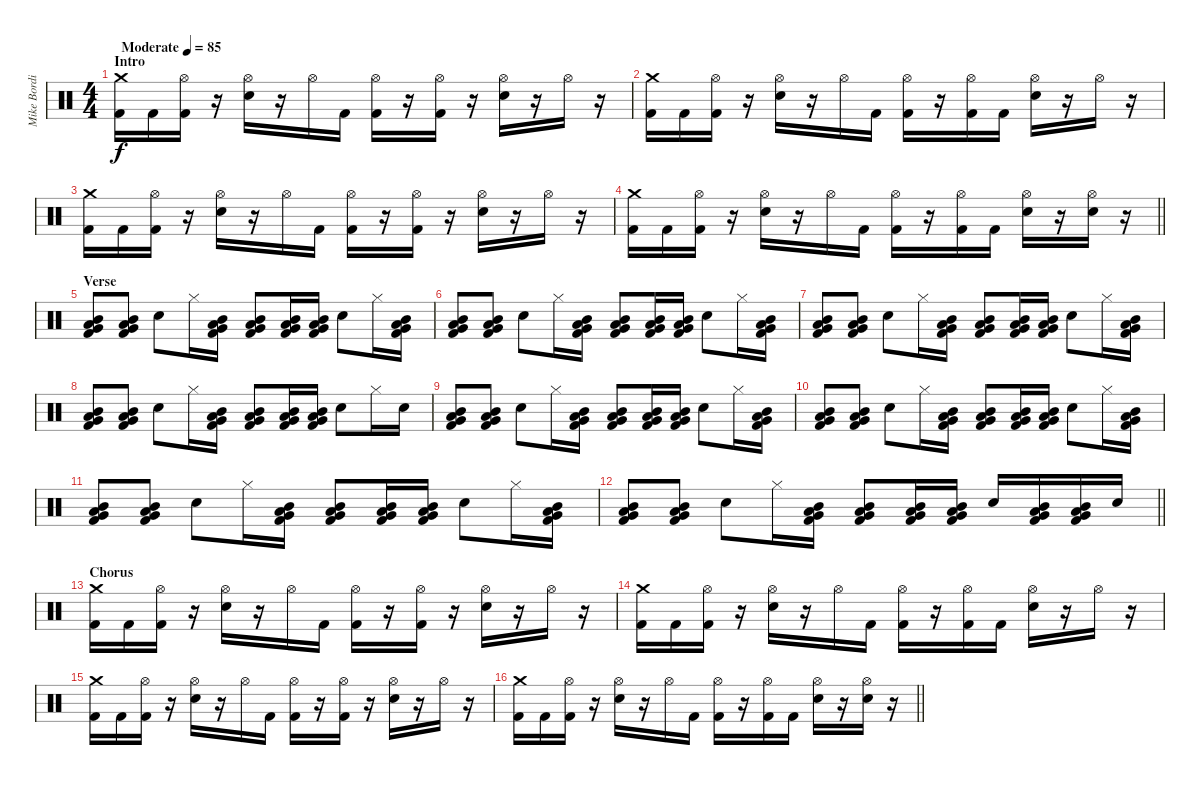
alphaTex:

\track ("Mike Bordin (Drums)" "Mike Bordi") {instrument percussion}
\staff {score}
\articulation defaults
\ts (4 4)
\section ("" "Intro")
\tempo (85 "Moderate")
\clef neutral
\ks c
("Crash medium (hit)" "Kick (hit) 2").16{dy f} "Kick (hit) 2".16 ("Hi-Hat (open)" "Kick (hit) 2").16 r.16 ("Hi-Hat (open)" "Snare (hit) 2").16 r.16 "Hi-Hat (open)".16 "Kick (hit) 2".16 ("Hi-Hat (open)" "Kick (hit) 2").16 r.16 ("Hi-Hat (open)" "Kick (hit) 2").16 r.16 ("Hi-Hat (open)" "Snare (hit) 2").16 r.16 "Hi-Hat (open)".16 r.16 |
("Crash medium (hit)" "Kick (hit) 2").16 "Kick (hit) 2".16 ("Hi-Hat (open)" "Kick (hit) 2").16 r.16 ("Hi-Hat (open)" "Snare (hit) 2").16 r.16 "Hi-Hat (open)".16 "Kick (hit) 2".16 ("Hi-Hat (open)" "Kick (hit) 2").16 r.16 ("Hi-Hat (open)" "Kick (hit) 2").16 "Kick (hit) 2".16 ("Hi-Hat (open)" "Snare (hit) 2").16 r.16 "Hi-Hat (open)".16 r.16 |
("Crash medium (hit)" "Kick (hit) 2").16 "Kick (hit) 2".16 ("Hi-Hat (open)" "Kick (hit) 2").16 r.16 ("Hi-Hat (open)" "Snare (hit) 2").16 r.16 "Hi-Hat (open)".16 "Kick (hit) 2".16 ("Hi-Hat (open)" "Kick (hit) 2").16 r.16 ("Hi-Hat (open)" "Kick (hit) 2").16 r.16 ("Hi-Hat (open)" "Snare (hit) 2").16 r.16 "Hi-Hat (open)".16 r.16 |
\barLineRight lightlight
("Crash medium (hit)" "Kick (hit) 2").16 "Kick (hit) 2".16 ("Hi-Hat (open)" "Kick (hit) 2").16 r.16 ("Hi-Hat (open)" "Snare (hit) 2").16 r.16 "Hi-Hat (open)".16 "Kick (hit) 2".16 ("Hi-Hat (open)" "Kick (hit) 2").16 r.16 ("Hi-Hat (open)" "Kick (hit) 2").16 "Kick (hit) 2".16 ("Hi-Hat (open)" "Snare (hit) 2").16 r.16 ("Hi-Hat (open)" "Snare (hit) 2").16 r.16 |
\section ("" "Verse")
("Mid Tom (hit)" "Low Tom (hit)" "Very Low Tom (hit)" "Kick (hit) 2").8 ("Mid Tom (hit)" "Low Tom (hit)" "Very Low Tom (hit)" "Kick (hit) 2").8 "Snare (hit) 2".8 "Hi-Hat (closed)".16 ("Mid Tom (hit)" "Low Tom (hit)" "Very Low Tom (hit)" "Kick (hit) 2").16 ("Mid Tom (hit)" "Low Tom (hit)" "Very Low Tom (hit)" "Kick (hit) 2").8 ("Mid Tom (hit)" "Low Tom (hit)" "Very Low Tom (hit)" "Kick (hit) 2").16 ("Mid Tom (hit)" "Low Tom (hit)" "Very Low Tom (hit)" "Kick (hit) 2").16 "Snare (hit) 2".8 "Hi-Hat (closed)".16 ("Mid Tom (hit)" "Low Tom (hit)" "Very Low Tom (hit)" "Kick (hit) 2").16 |
("Mid Tom (hit)" "Low Tom (hit)" "Very Low Tom (hit)" "Kick (hit) 2").8 ("Mid Tom (hit)" "Low Tom (hit)" "Very Low Tom (hit)" "Kick (hit) 2").8 "Snare (hit) 2".8 "Hi-Hat (closed)".16 ("Mid Tom (hit)" "Low Tom (hit)" "Very Low Tom (hit)" "Kick (hit) 2").16 ("Mid Tom (hit)" "Low Tom (hit)" "Very Low Tom (hit)" "Kick (hit) 2").8 ("Mid Tom (hit)" "Low Tom (hit)" "Very Low Tom (hit)" "Kick (hit) 2").16 ("Mid Tom (hit)" "Low Tom (hit)" "Very Low Tom (hit)" "Kick (hit) 2").16 "Snare (hit) 2".8 "Hi-Hat (closed)".16 ("Mid Tom (hit)" "Low Tom (hit)" "Very Low Tom (hit)" "Kick (hit) 2").16 |
("Mid Tom (hit)" "Low Tom (hit)" "Very Low Tom (hit)" "Kick (hit) 2").8 ("Mid Tom (hit)" "Low Tom (hit)" "Very Low Tom (hit)" "Kick (hit) 2").8 "Snare (hit) 2".8 "Hi-Hat (closed)".16 ("Mid Tom (hit)" "Low Tom (hit)" "Very Low Tom (hit)" "Kick (hit) 2").16 ("Mid Tom (hit)" "Low Tom (hit)" "Very Low Tom (hit)" "Kick (hit) 2").8 ("Mid Tom (hit)" "Low Tom (hit)" "Very Low Tom (hit)" "Kick (hit) 2").16 ("Mid Tom (hit)" "Low Tom (hit)" "Very Low Tom (hit)" "Kick (hit) 2").16 "Snare (hit) 2".8 "Hi-Hat (closed)".16 ("Mid Tom (hit)" "Low Tom (hit)" "Very Low Tom (hit)" "Kick (hit) 2").16 |
("Mid Tom (hit)" "Low Tom (hit)" "Very Low Tom (hit)" "Kick (hit) 2").8 ("Mid Tom (hit)" "Low Tom (hit)" "Very Low Tom (hit)" "Kick (hit) 2").8 "Snare (hit) 2".8 "Hi-Hat (closed)".16 ("Mid Tom (hit)" "Low Tom (hit)" "Very Low Tom (hit)" "Kick (hit) 2").16 ("Mid Tom (hit)" "Low Tom (hit)" "Very Low Tom (hit)" "Kick (hit) 2").8 ("Mid Tom (hit)" "Low Tom (hit)" "Very Low Tom (hit)" "Kick (hit) 2").16 ("Mid Tom (hit)" "Low Tom (hit)" "Very Low Tom (hit)" "Kick (hit) 2").16 "Snare (hit) 2".8 "Hi-Hat (closed)".16 "Snare (hit) 2".16 |
("Mid Tom (hit)" "Low Tom (hit)" "Very Low Tom (hit)" "Kick (hit) 2").8 ("Mid Tom (hit)" "Low Tom (hit)" "Very Low Tom (hit)" "Kick (hit) 2").8 "Snare (hit) 2".8 "Hi-Hat (closed)".16 ("Mid Tom (hit)" "Low Tom (hit)" "Very Low Tom (hit)" "Kick (hit) 2").16 ("Mid Tom (hit)" "Low Tom (hit)" "Very Low Tom (hit)" "Kick (hit) 2").8 ("Mid Tom (hit)" "Low Tom (hit)" "Very Low Tom (hit)" "Kick (hit) 2").16 ("Mid Tom (hit)" "Low Tom (hit)" "Very Low Tom (hit)" "Kick (hit) 2").16 "Snare (hit) 2".8 "Hi-Hat (closed)".16 ("Mid Tom (hit)" "Low Tom (hit)" "Very Low Tom (hit)" "Kick (hit) 2").16 |
("Mid Tom (hit)" "Low Tom (hit)" "Very Low Tom (hit)" "Kick (hit) 2").8 ("Mid Tom (hit)" "Low Tom (hit)" "Very Low Tom (hit)" "Kick (hit) 2").8 "Snare (hit) 2".8 "Hi-Hat (closed)".16 ("Mid Tom (hit)" "Low Tom (hit)" "Very Low Tom (hit)" "Kick (hit) 2").16 ("Mid Tom (hit)" "Low Tom (hit)" "Very Low Tom (hit)" "Kick (hit) 2").8 ("Mid Tom (hit)" "Low Tom (hit)" "Very Low Tom (hit)" "Kick (hit) 2").16 ("Mid Tom (hit)" "Low Tom (hit)" "Very Low Tom (hit)" "Kick (hit) 2").16 "Snare (hit) 2".8 "Hi-Hat (closed)".16 ("Mid Tom (hit)" "Low Tom (hit)" "Very Low Tom (hit)" "Kick (hit) 2").16 |
("Mid Tom (hit)" "Low Tom (hit)" "Very Low Tom (hit)" "Kick (hit) 2").8 ("Mid Tom (hit)" "Low Tom (hit)" "Very Low Tom (hit)" "Kick (hit) 2").8 "Snare (hit) 2".8 "Hi-Hat (closed)".16 ("Mid Tom (hit)" "Low Tom (hit)" "Very Low Tom (hit)" "Kick (hit) 2").16 ("Mid Tom (hit)" "Low Tom (hit)" "Very Low Tom (hit)" "Kick (hit) 2").8 ("Mid Tom (hit)" "Low Tom (hit)" "Very Low Tom (hit)" "Kick (hit) 2").16 ("Mid Tom (hit)" "Low Tom (hit)" "Very Low Tom (hit)" "Kick (hit) 2").16 "Snare (hit) 2".8 "Hi-Hat (closed)".16 ("Mid Tom (hit)" "Low Tom (hit)" "Very Low Tom (hit)" "Kick (hit) 2").16 |
\barLineRight lightlight
("Mid Tom (hit)" "Low Tom (hit)" "Very Low Tom (hit)" "Kick (hit) 2").8 ("Mid Tom (hit)" "Low Tom (hit)" "Very Low Tom (hit)" "Kick (hit) 2").8 "Snare (hit) 2".8 "Hi-Hat (closed)".16 ("Mid Tom (hit)" "Low Tom (hit)" "Very Low Tom (hit)" "Kick (hit) 2").16 ("Mid Tom (hit)" "Low Tom (hit)" "Very Low Tom (hit)" "Kick (hit) 2").8 ("Mid Tom (hit)" "Low Tom (hit)" "Very Low Tom (hit)" "Kick (hit) 2").16 ("Mid Tom (hit)" "Low Tom (hit)" "Very Low Tom (hit)" "Kick (hit) 2").16 "Snare (hit) 2".16 ("Mid Tom (hit)" "Low Tom (hit)" "Very Low Tom (hit)" "Kick (hit) 2").16 ("Mid Tom (hit)" "Low Tom (hit)" "Very Low Tom (hit)" "Kick (hit) 2").16 "Snare (hit) 2".16 |
\section ("" "Chorus")
("Crash medium (hit)" "Kick (hit) 2").16 "Kick (hit) 2".16 ("Hi-Hat (open)" "Kick (hit) 2").16 r.16 ("Hi-Hat (open)" "Snare (hit) 2").16 r.16 "Hi-Hat (open)".16 "Kick (hit) 2".16 ("Hi-Hat (open)" "Kick (hit) 2").16 r.16 ("Hi-Hat (open)" "Kick (hit) 2").16 r.16 ("Hi-Hat (open)" "Snare (hit) 2").16 r.16 "Hi-Hat (open)".16 r.16 |
("Crash medium (hit)" "Kick (hit) 2").16 "Kick (hit) 2".16 ("Hi-Hat (open)" "Kick (hit) 2").16 r.16 ("Hi-Hat (open)" "Snare (hit) 2").16 r.16 "Hi-Hat (open)".16 "Kick (hit) 2".16 ("Hi-Hat (open)" "Kick (hit) 2").16 r.16 ("Hi-Hat (open)" "Kick (hit) 2").16 "Kick (hit) 2".16 ("Hi-Hat (open)" "Snare (hit) 2").16 r.16 "Hi-Hat (open)".16 r.16 |
("Crash medium (hit)" "Kick (hit) 2").16 "Kick (hit) 2".16 ("Hi-Hat (open)" "Kick (hit) 2").16 r.16 ("Hi-Hat (open)" "Snare (hit) 2").16 r.16 "Hi-Hat (open)".16 "Kick (hit) 2".16 ("Hi-Hat (open)" "Kick (hit) 2").16 r.16 ("Hi-Hat (open)" "Kick (hit) 2").16 r.16 ("Hi-Hat (open)" "Snare (hit) 2").16 r.16 "Hi-Hat (open)".16 r.16 |
\barLineRight lightlight
("Crash medium (hit)" "Kick (hit) 2").16 "Kick (hit) 2".16 ("Hi-Hat (open)" "Kick (hit) 2").16 r.16 ("Hi-Hat (open)" "Snare (hit) 2").16 r.16 "Hi-Hat (open)".16 "Kick (hit) 2".16 ("Hi-Hat (open)" "Kick (hit) 2").16 r.16 ("Hi-Hat (open)" "Kick (hit) 2").16 "Kick (hit) 2".16 ("Hi-Hat (open)" "Snare (hit) 2").16 r.16 ("Hi-Hat (open)" "Snare (hit) 2").16 r.16
